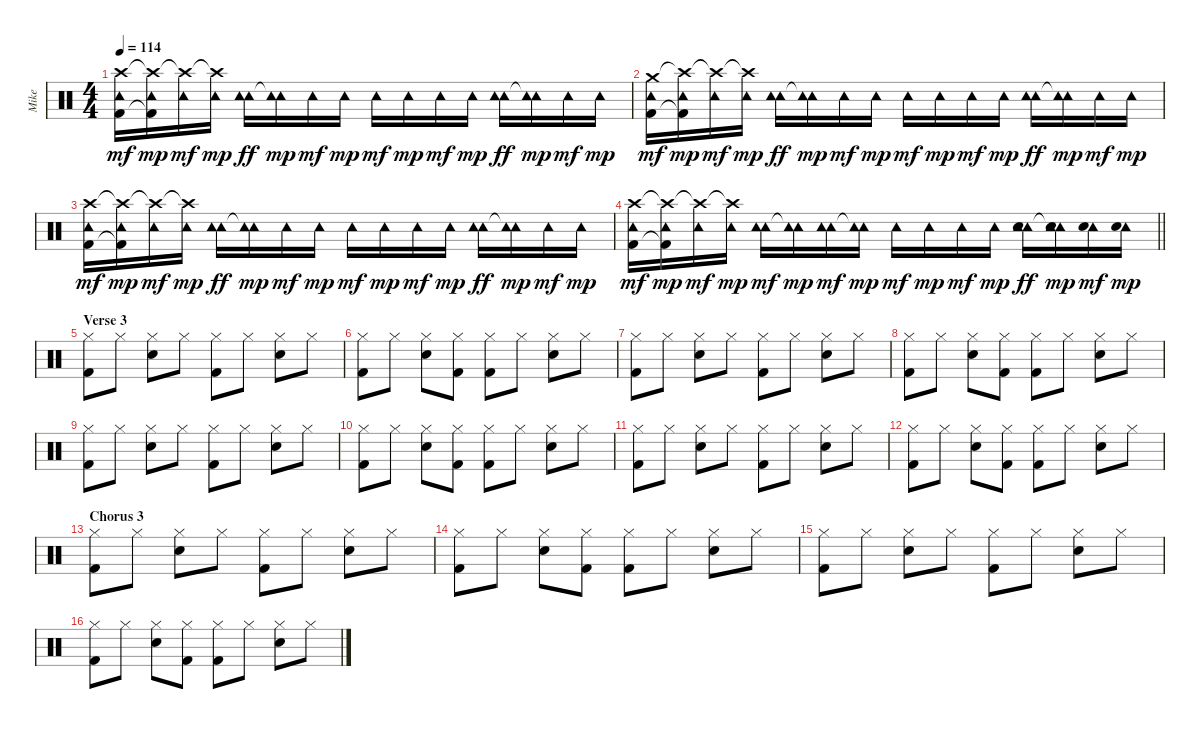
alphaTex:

\track ("Mike" "Mike") {instrument percussion}
\staff {score}
\articulation defaults
\ts (4 4)
\tempo 114
\clef neutral
\ks c
("Crash high (hit)" "Tambourine (hit)" "Kick (hit) 2").16{dy mf} ("Crash high (hit)"{t} "Tambourine (hit)" "Kick (hit) 2"{t}).16{dy mp} ("Crash high (hit)"{t} "Tambourine (hit)").16{dy mf} ("Crash high (hit)"{t} "Tambourine (hit)").16{dy mp} ("Tambourine (hit)" "Tambourine (hit)").16{dy ff} ("Tambourine (hit)" "Tambourine (hit)"{t}).16{dy mp} "Tambourine (hit)".16{dy mf} "Tambourine (hit)".16{dy mp} "Tambourine (hit)".16{dy mf} "Tambourine (hit)".16{dy mp} "Tambourine (hit)".16{dy mf} "Tambourine (hit)".16{dy mp} ("Tambourine (hit)" "Tambourine (hit)").16{dy ff} ("Tambourine (hit)" "Tambourine (hit)"{t}).16{dy mp} "Tambourine (hit)".16{dy mf} "Tambourine (hit)".16{dy mp} |
("Crash medium (hit)" "Tambourine (hit)" "Kick (hit) 2").16{dy mf} ("Crash high (hit)"{t} "Tambourine (hit)" "Kick (hit) 2"{t}).16{dy mp} ("Crash high (hit)"{t} "Tambourine (hit)").16{dy mf} ("Crash high (hit)"{t} "Tambourine (hit)").16{dy mp} ("Tambourine (hit)" "Tambourine (hit)").16{dy ff} ("Tambourine (hit)" "Tambourine (hit)"{t}).16{dy mp} "Tambourine (hit)".16{dy mf} "Tambourine (hit)".16{dy mp} "Tambourine (hit)".16{dy mf} "Tambourine (hit)".16{dy mp} "Tambourine (hit)".16{dy mf} "Tambourine (hit)".16{dy mp} ("Tambourine (hit)" "Tambourine (hit)").16{dy ff} ("Tambourine (hit)" "Tambourine (hit)"{t}).16{dy mp} "Tambourine (hit)".16{dy mf} "Tambourine (hit)".16{dy mp} |
("Crash high (hit)" "Tambourine (hit)" "Kick (hit) 2").16{dy mf} ("Crash high (hit)"{t} "Tambourine (hit)" "Kick (hit) 2"{t}).16{dy mp} ("Crash high (hit)"{t} "Tambourine (hit)").16{dy mf} ("Crash high (hit)"{t} "Tambourine (hit)").16{dy mp} ("Tambourine (hit)" "Tambourine (hit)").16{dy ff} ("Tambourine (hit)" "Tambourine (hit)"{t}).16{dy mp} "Tambourine (hit)".16{dy mf} "Tambourine (hit)".16{dy mp} "Tambourine (hit)".16{dy mf} "Tambourine (hit)".16{dy mp} "Tambourine (hit)".16{dy mf} "Tambourine (hit)".16{dy mp} ("Tambourine (hit)" "Tambourine (hit)").16{dy ff} ("Tambourine (hit)" "Tambourine (hit)"{t}).16{dy mp} "Tambourine (hit)".16{dy mf} "Tambourine (hit)".16{dy mp} |
\barLineRight lightlight
("Crash high (hit)" "Tambourine (hit)" "Kick (hit) 2").16{dy mf} ("Crash high (hit)"{t} "Tambourine (hit)" "Kick (hit) 2"{t}).16{dy mp} ("Crash high (hit)"{t} "Tambourine (hit)").16{dy mf} ("Crash high (hit)"{t} "Tambourine (hit)").16{dy mp} ("Tambourine (hit)" "Tambourine (hit)").16{dy mf} ("Tambourine (hit)" "Tambourine (hit)"{t}).16{dy mp} ("Tambourine (hit)" "Tambourine (hit)").16{dy mf} ("Tambourine (hit)" "Tambourine (hit)"{t}).16{dy mp} "Tambourine (hit)".16{dy mf} "Tambourine (hit)".16{dy mp} "Tambourine (hit)".16{dy mf} "Tambourine (hit)".16{dy mp} ("Tambourine (hit)" "Electric Snare (hit)" "Tambourine (hit)").16{dy ff} ("Tambourine (hit)" "Electric Snare (hit)" "Tambourine (hit)"{t}).16{dy mp} ("Tambourine (hit)" "Electric Snare (hit)").16{dy mf} ("Tambourine (hit)" "Electric Snare (hit)").16{dy mp} |
\section ("" "Verse 3")
("Hi-Hat (closed)" "Kick (hit) 2").8 "Hi-Hat (closed)".8 ("Hi-Hat (closed)" "Electric Snare (hit)").8 "Hi-Hat (closed)".8 ("Hi-Hat (closed)" "Kick (hit) 2").8 "Hi-Hat (closed)".8 ("Hi-Hat (closed)" "Electric Snare (hit)").8 "Hi-Hat (closed)".8 |
("Hi-Hat (closed)" "Kick (hit) 2").8 "Hi-Hat (closed)".8 ("Hi-Hat (closed)" "Electric Snare (hit)").8 ("Hi-Hat (closed)" "Kick (hit) 2").8 ("Hi-Hat (closed)" "Kick (hit) 2").8 "Hi-Hat (closed)".8 ("Hi-Hat (closed)" "Electric Snare (hit)").8 "Hi-Hat (closed)".8 |
("Hi-Hat (closed)" "Kick (hit) 2").8 "Hi-Hat (closed)".8 ("Hi-Hat (closed)" "Electric Snare (hit)").8 "Hi-Hat (closed)".8 ("Hi-Hat (closed)" "Kick (hit) 2").8 "Hi-Hat (closed)".8 ("Hi-Hat (closed)" "Electric Snare (hit)").8 "Hi-Hat (closed)".8 |
("Hi-Hat (closed)" "Kick (hit) 2").8 "Hi-Hat (closed)".8 ("Hi-Hat (closed)" "Electric Snare (hit)").8 ("Hi-Hat (closed)" "Kick (hit) 2").8 ("Hi-Hat (closed)" "Kick (hit) 2").8 "Hi-Hat (closed)".8 ("Hi-Hat (closed)" "Electric Snare (hit)").8 "Hi-Hat (closed)".8 |
("Hi-Hat (closed)" "Kick (hit) 2").8 "Hi-Hat (closed)".8 ("Hi-Hat (closed)" "Electric Snare (hit)").8 "Hi-Hat (closed)".8 ("Hi-Hat (closed)" "Kick (hit) 2").8 "Hi-Hat (closed)".8 ("Hi-Hat (closed)" "Electric Snare (hit)").8 "Hi-Hat (closed)".8 |
("Hi-Hat (closed)" "Kick (hit) 2").8 "Hi-Hat (closed)".8 ("Hi-Hat (closed)" "Electric Snare (hit)").8 ("Hi-Hat (closed)" "Kick (hit) 2").8 ("Hi-Hat (closed)" "Kick (hit) 2").8 "Hi-Hat (closed)".8 ("Hi-Hat (closed)" "Electric Snare (hit)").8 "Hi-Hat (closed)".8 |
("Hi-Hat (closed)" "Kick (hit) 2").8 "Hi-Hat (closed)".8 ("Hi-Hat (closed)" "Electric Snare (hit)").8 "Hi-Hat (closed)".8 ("Hi-Hat (closed)" "Kick (hit) 2").8 "Hi-Hat (closed)".8 ("Hi-Hat (closed)" "Electric Snare (hit)").8 "Hi-Hat (closed)".8 |
("Hi-Hat (closed)" "Kick (hit) 2").8 "Hi-Hat (closed)".8 ("Hi-Hat (closed)" "Electric Snare (hit)").8 ("Hi-Hat (closed)" "Kick (hit) 2").8 ("Hi-Hat (closed)" "Kick (hit) 2").8 "Hi-Hat (closed)".8 ("Hi-Hat (closed)" "Electric Snare (hit)").8 "Hi-Hat (closed)".8 |
\section ("" "Chorus 3")
("Hi-Hat (closed)" "Kick (hit) 2").8 "Hi-Hat (closed)".8 ("Hi-Hat (closed)" "Electric Snare (hit)").8 "Hi-Hat (closed)".8 ("Hi-Hat (closed)" "Kick (hit) 2").8 "Hi-Hat (closed)".8 ("Hi-Hat (closed)" "Electric Snare (hit)").8 "Hi-Hat (closed)".8 |
("Hi-Hat (closed)" "Kick (hit) 2").8 "Hi-Hat (closed)".8 ("Hi-Hat (closed)" "Electric Snare (hit)").8 ("Hi-Hat (closed)" "Kick (hit) 2").8 ("Hi-Hat (closed)" "Kick (hit) 2").8 "Hi-Hat (closed)".8 ("Hi-Hat (closed)" "Electric Snare (hit)").8 "Hi-Hat (closed)".8 |
("Hi-Hat (closed)" "Kick (hit) 2").8 "Hi-Hat (closed)".8 ("Hi-Hat (closed)" "Electric Snare (hit)").8 "Hi-Hat (closed)".8 ("Hi-Hat (closed)" "Kick (hit) 2").8 "Hi-Hat (closed)".8 ("Hi-Hat (closed)" "Electric Snare (hit)").8 "Hi-Hat (closed)".8 |
("Hi-Hat (closed)" "Kick (hit) 2").8 "Hi-Hat (closed)".8 ("Hi-Hat (closed)" "Electric Snare (hit)").8 ("Hi-Hat (closed)" "Kick (hit) 2").8 ("Hi-Hat (closed)" "Kick (hit) 2").8 "Hi-Hat (closed)".8 ("Hi-Hat (closed)" "Electric Snare (hit)").8 "Hi-Hat (closed)".8
